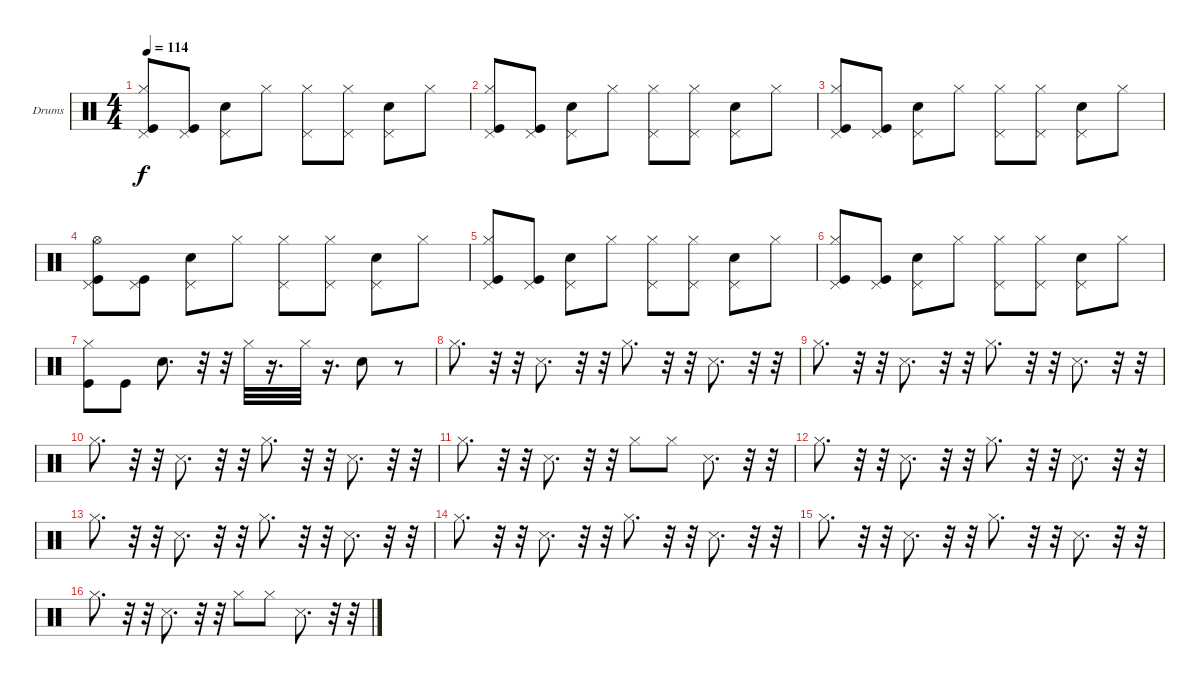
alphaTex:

\bracketExtendMode groupsimilarinstruments
\firstSystemTrackNameOrientation horizontal
\otherSystemsTrackNameOrientation horizontal
\track ("Drumkit" "Drums") {instrument percussion}
\staff {score}
\articulation defaults
\ts (4 4)
\tempo 114
\clef neutral
\ks c
("Kick (hit)" "Hi-Hat (closed)" "Pedal Hi-Hat (hit)").8{dy f} ("Kick (hit)" "Pedal Hi-Hat (hit)").8 ("Snare (hit) 2" "Pedal Hi-Hat (hit)").8 "Hi-Hat (closed)".8 ("Hi-Hat (closed)" "Pedal Hi-Hat (hit)").8 ("Hi-Hat (closed)" "Pedal Hi-Hat (hit)").8 ("Snare (hit) 2" "Pedal Hi-Hat (hit)").8 "Hi-Hat (closed)".8 |
("Kick (hit)" "Hi-Hat (closed)" "Pedal Hi-Hat (hit)").8 ("Kick (hit)" "Pedal Hi-Hat (hit)").8 ("Snare (hit) 2" "Pedal Hi-Hat (hit)").8 "Hi-Hat (closed)".8 ("Hi-Hat (closed)" "Pedal Hi-Hat (hit)").8 ("Hi-Hat (closed)" "Pedal Hi-Hat (hit)").8 ("Snare (hit) 2" "Pedal Hi-Hat (hit)").8 "Hi-Hat (closed)".8 |
("Kick (hit)" "Hi-Hat (closed)" "Pedal Hi-Hat (hit)").8 ("Kick (hit)" "Pedal Hi-Hat (hit)").8 ("Snare (hit) 2" "Pedal Hi-Hat (hit)").8 "Hi-Hat (closed)".8 ("Hi-Hat (closed)" "Pedal Hi-Hat (hit)").8 ("Hi-Hat (closed)" "Pedal Hi-Hat (hit)").8 ("Snare (hit) 2" "Pedal Hi-Hat (hit)").8 "Hi-Hat (closed)".8 |
("Kick (hit)" "Hi-Hat (open)" "Pedal Hi-Hat (hit)").8 ("Kick (hit)" "Pedal Hi-Hat (hit)").8 ("Snare (hit) 2" "Pedal Hi-Hat (hit)").8 "Hi-Hat (closed)".8 ("Hi-Hat (closed)" "Pedal Hi-Hat (hit)").8 ("Hi-Hat (closed)" "Pedal Hi-Hat (hit)").8 ("Snare (hit) 2" "Pedal Hi-Hat (hit)").8 "Hi-Hat (closed)".8 |
("Kick (hit)" "Hi-Hat (closed)" "Pedal Hi-Hat (hit)").8 ("Kick (hit)" "Pedal Hi-Hat (hit)").8 ("Snare (hit) 2" "Pedal Hi-Hat (hit)").8 "Hi-Hat (closed)".8 ("Hi-Hat (closed)" "Pedal Hi-Hat (hit)").8 ("Hi-Hat (closed)" "Pedal Hi-Hat (hit)").8 ("Snare (hit) 2" "Pedal Hi-Hat (hit)").8 "Hi-Hat (closed)".8 |
("Kick (hit)" "Hi-Hat (closed)" "Pedal Hi-Hat (hit)").8 ("Kick (hit)" "Pedal Hi-Hat (hit)").8 ("Snare (hit) 2" "Pedal Hi-Hat (hit)").8 "Hi-Hat (closed)".8 ("Hi-Hat (closed)" "Pedal Hi-Hat (hit)").8 ("Hi-Hat (closed)" "Pedal Hi-Hat (hit)").8 ("Snare (hit) 2" "Pedal Hi-Hat (hit)").8 "Hi-Hat (closed)".8 |
("Kick (hit)" "Hi-Hat (closed)").8 "Kick (hit)".8 "Snare (hit) 2".8{d} r.32 r.32 "Hi-Hat (closed)".32 r.16{d} "Hi-Hat (closed)".32 r.16{d} "Snare (hit) 2".8 r.8 |
"Hi-Hat (closed)".8{d} r.32 r.32 "Snare (side stick) 3".8{d} r.32 r.32 "Hi-Hat (closed)".8{d} r.32 r.32 "Snare (side stick) 3".8{d} r.32 r.32 |
"Hi-Hat (closed)".8{d} r.32 r.32 "Snare (side stick) 3".8{d} r.32 r.32 "Hi-Hat (closed)".8{d} r.32 r.32 "Snare (side stick) 3".8{d} r.32 r.32 |
"Hi-Hat (closed)".8{d} r.32 r.32 "Snare (side stick) 3".8{d} r.32 r.32 "Hi-Hat (closed)".8{d} r.32 r.32 "Snare (side stick) 3".8{d} r.32 r.32 |
"Hi-Hat (closed)".8{d} r.32 r.32 "Snare (side stick) 3".8{d} r.32 r.32 "Hi-Hat (closed)".8 "Hi-Hat (closed)".8 "Snare (side stick) 3".8{d} r.32 r.32 |
"Hi-Hat (closed)".8{d} r.32 r.32 "Snare (side stick) 3".8{d} r.32 r.32 "Hi-Hat (closed)".8{d} r.32 r.32 "Snare (side stick) 3".8{d} r.32 r.32 |
"Hi-Hat (closed)".8{d} r.32 r.32 "Snare (side stick) 3".8{d} r.32 r.32 "Hi-Hat (closed)".8{d} r.32 r.32 "Snare (side stick) 3".8{d} r.32 r.32 |
"Hi-Hat (closed)".8{d} r.32 r.32 "Snare (side stick) 3".8{d} r.32 r.32 "Hi-Hat (closed)".8{d} r.32 r.32 "Snare (side stick) 3".8{d} r.32 r.32 |
"Hi-Hat (closed)".8{d} r.32 r.32 "Snare (side stick) 3".8{d} r.32 r.32 "Hi-Hat (closed)".8{d} r.32 r.32 "Snare (side stick) 3".8{d} r.32 r.32 |
"Hi-Hat (closed)".8{d} r.32 r.32 "Snare (side stick) 3".8{d} r.32 r.32 "Hi-Hat (closed)".8 "Hi-Hat (closed)".8 "Snare (side stick) 3".8{d} r.32 r.32
